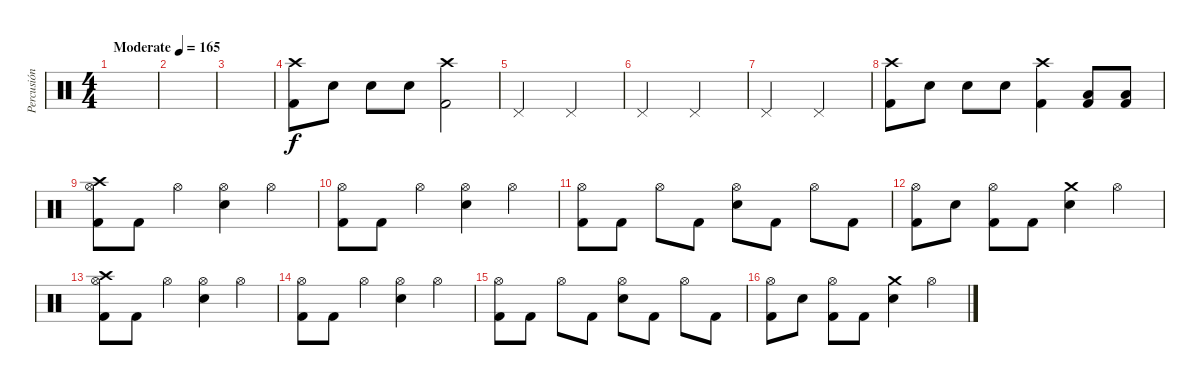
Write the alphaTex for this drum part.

\track ("Percusión" "Percusión") {instrument percussion}
\staff {score}
\articulation defaults
\ts (4 4)
\tempo (165 "Moderate")
\clef neutral
\ks c
|
|
|
("Crash high (hit)" "Kick (hit) 2").8 "Snare (hit) 2".8 "Snare (hit) 2".8 "Snare (hit) 2".8 ("Crash high (hit)" "Kick (hit) 2").2 |
"Pedal Hi-Hat (hit)".2 "Pedal Hi-Hat (hit)".2 |
"Pedal Hi-Hat (hit)".2 "Pedal Hi-Hat (hit)".2 |
"Pedal Hi-Hat (hit)".2 "Pedal Hi-Hat (hit)".2 |
("Crash high (hit)" "Kick (hit) 2").8 "Snare (hit) 2".8 "Snare (hit) 2".8 "Snare (hit) 2".8 ("Crash high (hit)" "Kick (hit) 2").4 ("Low Tom (hit)" "Kick (hit) 2").8 ("Low Tom (hit)" "Kick (hit) 2").8 |
("Crash high (hit)" "Hi-Hat (open)" "Kick (hit) 2").8 "Kick (hit) 2".8 "Hi-Hat (open)".4 ("Hi-Hat (open)" "Snare (hit) 2").4 "Hi-Hat (open)".4 |
("Hi-Hat (open)" "Kick (hit) 2").8 "Kick (hit) 2".8 "Hi-Hat (open)".4 ("Hi-Hat (open)" "Snare (hit) 2").4 "Hi-Hat (open)".4 |
("Hi-Hat (open)" "Kick (hit) 2").8 "Kick (hit) 2".8 "Hi-Hat (open)".8 "Kick (hit) 2".8 ("Hi-Hat (open)" "Snare (hit) 2").8 "Kick (hit) 2".8 "Hi-Hat (open)".8 "Kick (hit) 2".8 |
("Hi-Hat (open)" "Kick (hit) 2").8 "Snare (hit) 2".8 ("Hi-Hat (open)" "Kick (hit) 2").8 "Kick (hit) 2".8 ("Crash medium (hit)" "Snare (hit) 2").4 "Hi-Hat (open)".4 |
("Crash high (hit)" "Hi-Hat (open)" "Kick (hit) 2").8 "Kick (hit) 2".8 "Hi-Hat (open)".4 ("Hi-Hat (open)" "Snare (hit) 2").4 "Hi-Hat (open)".4 |
("Hi-Hat (open)" "Kick (hit) 2").8 "Kick (hit) 2".8 "Hi-Hat (open)".4 ("Hi-Hat (open)" "Snare (hit) 2").4 "Hi-Hat (open)".4 |
("Hi-Hat (open)" "Kick (hit) 2").8 "Kick (hit) 2".8 "Hi-Hat (open)".8 "Kick (hit) 2".8 ("Hi-Hat (open)" "Snare (hit) 2").8 "Kick (hit) 2".8 "Hi-Hat (open)".8 "Kick (hit) 2".8 |
("Hi-Hat (open)" "Kick (hit) 2").8 "Snare (hit) 2".8 ("Hi-Hat (open)" "Kick (hit) 2").8 "Kick (hit) 2".8 ("Crash medium (hit)" "Snare (hit) 2").4 "Hi-Hat (open)".4
